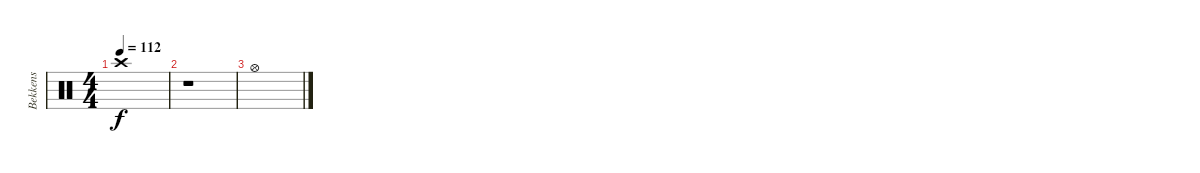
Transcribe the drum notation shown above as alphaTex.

\track ("Bekkens" "Bekkens") {instrument percussion}
\staff {score}
\articulation defaults
\ts (4 4)
\tempo 112
\clef neutral
\ks c "Crash high (hit)".1{dy f}
|
r.1 |
"Hi-Hat (open)".1
